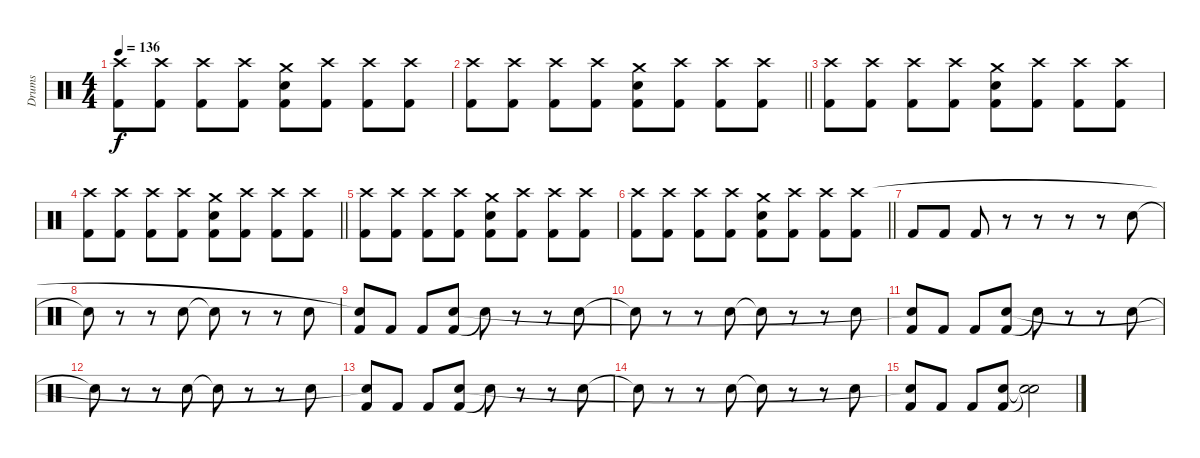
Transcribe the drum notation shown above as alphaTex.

\track ("Drums" "Drums") {instrument percussion}
\staff {score}
\articulation defaults
\ts (4 4)
\tempo 136
\clef neutral
\ks c
("Kick (hit) 2" "Crash high (hit)").8{dy f} ("Kick (hit) 2" "Crash high (hit)").8 ("Kick (hit) 2" "Crash high (hit)").8 ("Kick (hit) 2" "Crash high (hit)").8 ("Kick (hit) 2" "Snare (hit) 2" "Crash medium (hit)").8 ("Kick (hit) 2" "Crash high (hit)").8 ("Kick (hit) 2" "Crash high (hit)").8 ("Kick (hit) 2" "Crash high (hit)").8 |
\barLineRight lightlight
("Kick (hit) 2" "Crash high (hit)").8 ("Kick (hit) 2" "Crash high (hit)").8 ("Kick (hit) 2" "Crash high (hit)").8 ("Kick (hit) 2" "Crash high (hit)").8 ("Kick (hit) 2" "Snare (hit) 2" "Crash medium (hit)").8 ("Kick (hit) 2" "Crash high (hit)").8 ("Kick (hit) 2" "Crash high (hit)").8 ("Kick (hit) 2" "Crash high (hit)").8 |
("Kick (hit) 2" "Crash high (hit)").8 ("Kick (hit) 2" "Crash high (hit)").8 ("Kick (hit) 2" "Crash high (hit)").8 ("Kick (hit) 2" "Crash high (hit)").8 ("Kick (hit) 2" "Snare (hit) 2" "Crash medium (hit)").8 ("Kick (hit) 2" "Crash high (hit)").8 ("Kick (hit) 2" "Crash high (hit)").8 ("Kick (hit) 2" "Crash high (hit)").8 |
\barLineRight lightlight
("Kick (hit) 2" "Crash high (hit)").8 ("Kick (hit) 2" "Crash high (hit)").8 ("Kick (hit) 2" "Crash high (hit)").8 ("Kick (hit) 2" "Crash high (hit)").8 ("Kick (hit) 2" "Snare (hit) 2" "Crash medium (hit)").8 ("Kick (hit) 2" "Crash high (hit)").8 ("Kick (hit) 2" "Crash high (hit)").8 ("Kick (hit) 2" "Crash high (hit)").8 |
("Kick (hit) 2" "Crash high (hit)").8 ("Kick (hit) 2" "Crash high (hit)").8 ("Kick (hit) 2" "Crash high (hit)").8 ("Kick (hit) 2" "Crash high (hit)").8 ("Kick (hit) 2" "Snare (hit) 2" "Crash medium (hit)").8 ("Kick (hit) 2" "Crash high (hit)").8 ("Kick (hit) 2" "Crash high (hit)").8 ("Kick (hit) 2" "Crash high (hit)").8 |
\barLineRight lightlight
("Kick (hit) 2" "Crash high (hit)").8 ("Kick (hit) 2" "Crash high (hit)").8 ("Kick (hit) 2" "Crash high (hit)").8 ("Kick (hit) 2" "Crash high (hit)").8 ("Kick (hit) 2" "Snare (hit) 2" "Crash medium (hit)").8 ("Kick (hit) 2" "Crash high (hit)").8 ("Kick (hit) 2" "Crash high (hit)").8 ("Kick (hit) 2" "Crash high (hit)").8 |
\section ("" "")
"Kick (hit) 2".8 "Kick (hit) 2".8 "Kick (hit) 2".8 r.8 r.8 r.8 r.8 "Snare (hit) 2".8 |
"Snare (hit)"{t}.8 r.8 r.8 "Snare (hit) 2".8 "Snare (hit)"{t}.8 r.8 r.8 "Snare (hit) 2".8 |
("Kick (hit) 2" "Snare (hit)"{t}).8 "Kick (hit) 2".8 "Kick (hit) 2".8 ("Kick (hit) 2" "Snare (hit) 2").8 "Snare (hit)"{t}.8 r.8 r.8 "Snare (hit) 2".8 |
"Snare (hit)"{t}.8 r.8 r.8 "Snare (hit) 2".8 "Snare (hit)"{t}.8 r.8 r.8 "Snare (hit) 2".8 |
("Kick (hit) 2" "Snare (hit)"{t}).8 "Kick (hit) 2".8 "Kick (hit) 2".8 ("Kick (hit) 2" "Snare (hit) 2").8 "Snare (hit)"{t}.8 r.8 r.8 "Snare (hit) 2".8 |
"Snare (hit)"{t}.8 r.8 r.8 "Snare (hit) 2".8 "Snare (hit)"{t}.8 r.8 r.8 "Snare (hit) 2".8 |
("Kick (hit) 2" "Snare (hit)"{t}).8 "Kick (hit) 2".8 "Kick (hit) 2".8 ("Kick (hit) 2" "Snare (hit) 2").8 "Snare (hit)"{t}.8 r.8 r.8 "Snare (hit) 2".8 |
"Snare (hit)"{t}.8 r.8 r.8 "Snare (hit) 2".8 "Snare (hit)"{t}.8 r.8 r.8 "Snare (hit) 2".8 |
("Kick (hit) 2" "Snare (hit)"{t}).8 "Kick (hit) 2".8 "Kick (hit) 2".8 ("Kick (hit) 2" "Snare (hit) 2").8 ("Snare (hit)"{t} "Snare (hit)"{t}).2
